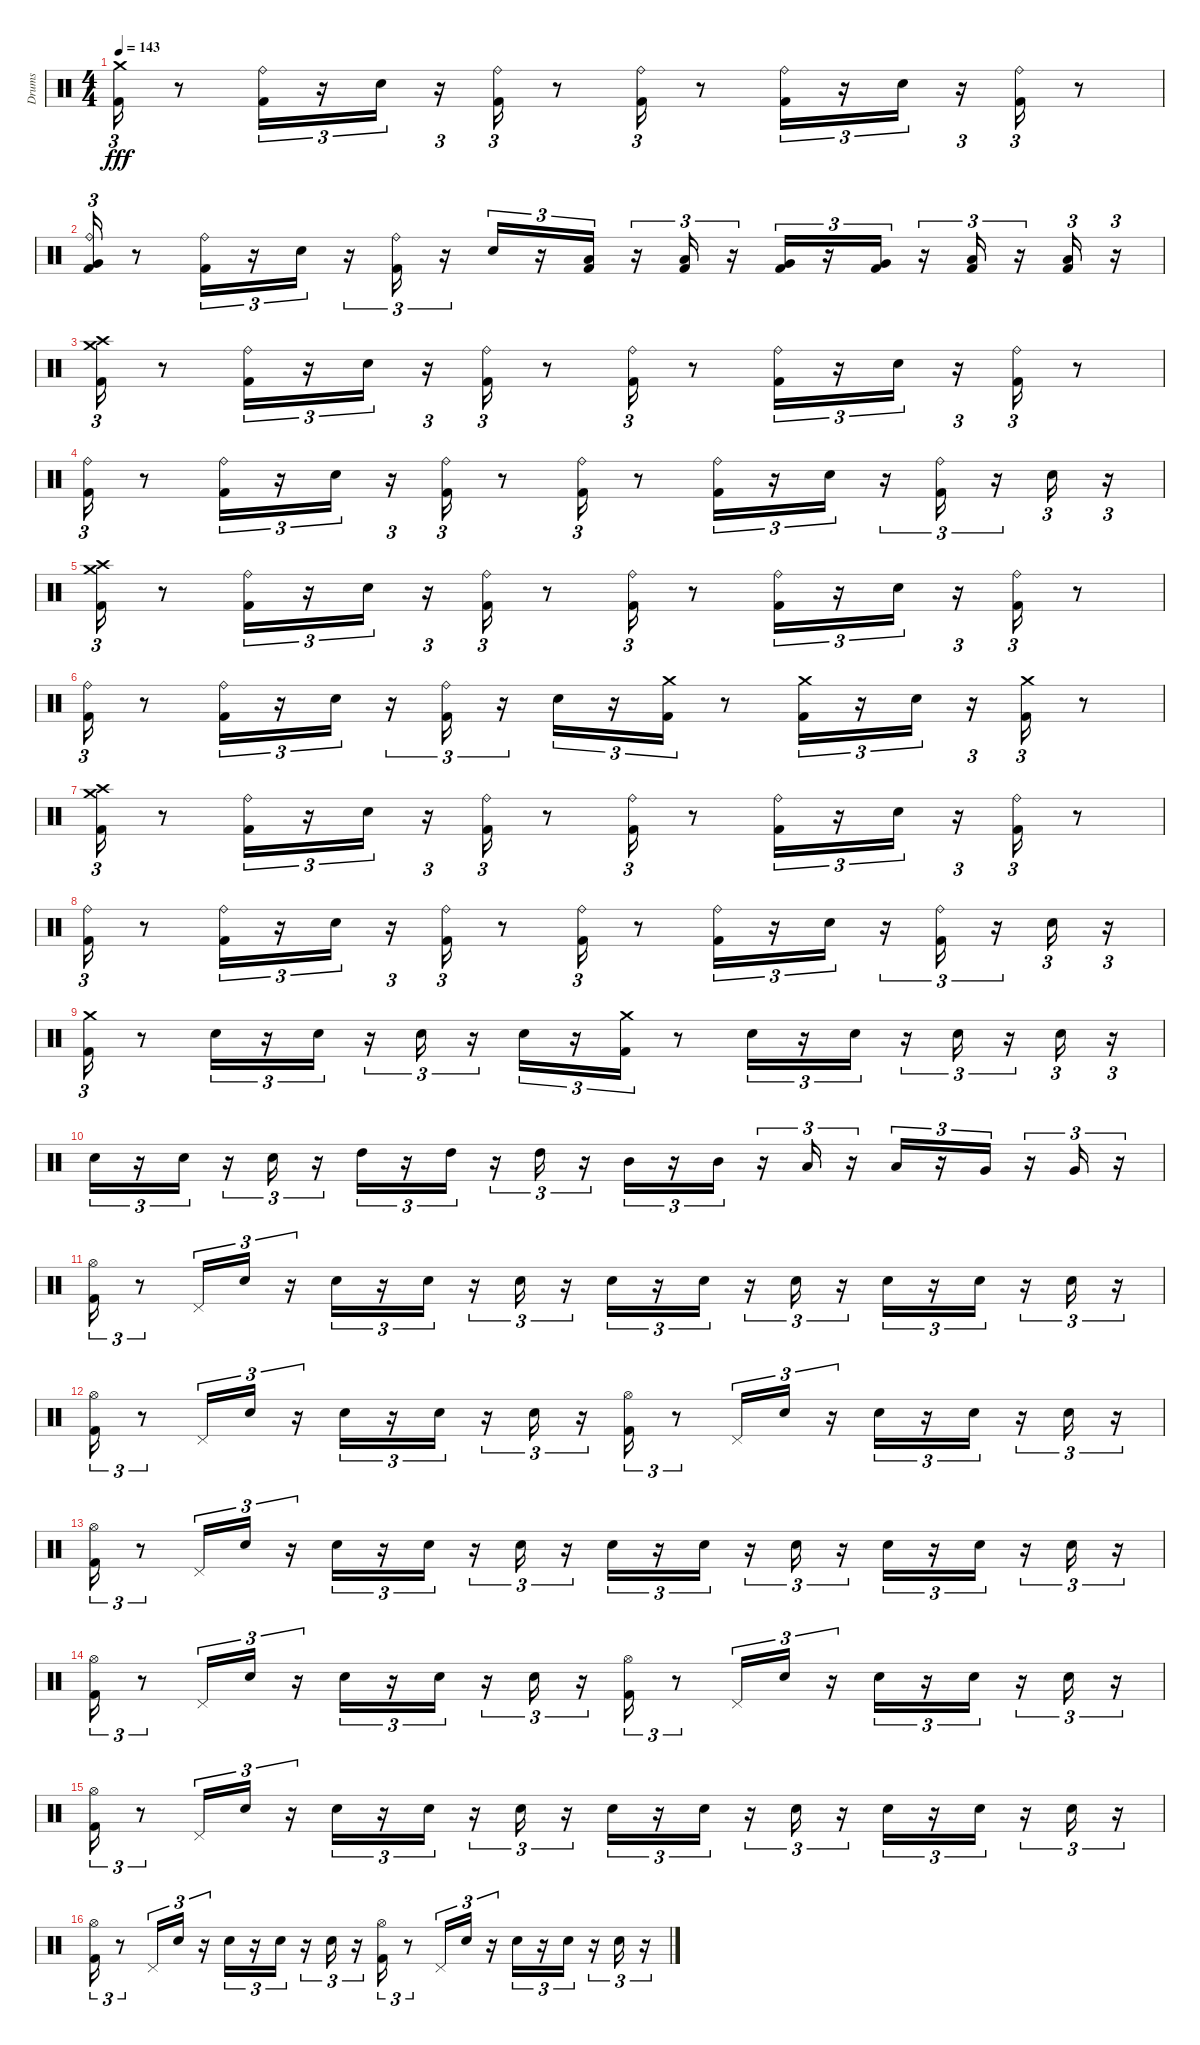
\track ("Drums" "Drums") {instrument percussion}
\staff {score}
\articulation defaults
\ts (4 4)
\tempo 143
\clef neutral
\ks c
("Crash medium (hit)" "Kick (hit) 2").16{tu (3 2) dy fff} r.8 ("Ride (bell)" "Kick (hit) 2").16{tu (3 2)} r.16{tu (3 2)} "Snare (hit) 2".16{tu (3 2)} r.16{tu (3 2)} ("Ride (bell)" "Kick (hit) 2").16{tu (3 2)} r.8 ("Ride (bell)" "Kick (hit) 2").16{tu (3 2)} r.8 ("Ride (bell)" "Kick (hit) 2").16{tu (3 2)} r.16{tu (3 2)} "Snare (hit) 2".16{tu (3 2)} r.16{tu (3 2)} ("Ride (bell)" "Kick (hit) 2").16{tu (3 2)} r.8 |
("Kick (hit) 2" "Very Low Tom (hit)" "Ride (bell)").16{tu (3 2)} r.8 ("Ride (bell)" "Kick (hit) 2").16{tu (3 2)} r.16{tu (3 2)} "Snare (hit) 2".16{tu (3 2)} r.16{tu (3 2)} ("Ride (bell)" "Kick (hit) 2").16{tu (3 2)} r.16{tu (3 2)} "Snare (hit) 2".16{tu (3 2)} r.16{tu (3 2)} ("Kick (hit) 2" "Low Tom (hit)").16{tu (3 2)} r.16{tu (3 2)} ("Kick (hit) 2" "Low Tom (hit)").16{tu (3 2)} r.16{tu (3 2)} ("Kick (hit) 2" "Very Low Tom (hit)").16{tu (3 2)} r.16{tu (3 2)} ("Kick (hit) 2" "Very Low Tom (hit)").16{tu (3 2)} r.16{tu (3 2)} ("Kick (hit) 2" "Low Floor Tom (hit)").16{tu (3 2)} r.16{tu (3 2)} ("Kick (hit) 2" "Low Floor Tom (hit)").16{tu (3 2)} r.16{tu (3 2)} |
("Crash high (hit)" "Crash medium (hit)" "Kick (hit) 2").16{tu (3 2)} r.8 ("Ride (bell)" "Kick (hit) 2").16{tu (3 2)} r.16{tu (3 2)} "Snare (hit) 2".16{tu (3 2)} r.16{tu (3 2)} ("Ride (bell)" "Kick (hit) 2").16{tu (3 2)} r.8 ("Ride (bell)" "Kick (hit) 2").16{tu (3 2)} r.8 ("Ride (bell)" "Kick (hit) 2").16{tu (3 2)} r.16{tu (3 2)} "Snare (hit) 2".16{tu (3 2)} r.16{tu (3 2)} ("Ride (bell)" "Kick (hit) 2").16{tu (3 2)} r.8 |
("Ride (bell)" "Kick (hit) 2").16{tu (3 2)} r.8 ("Ride (bell)" "Kick (hit) 2").16{tu (3 2)} r.16{tu (3 2)} "Snare (hit) 2".16{tu (3 2)} r.16{tu (3 2)} ("Ride (bell)" "Kick (hit) 2").16{tu (3 2)} r.8 ("Ride (bell)" "Kick (hit) 2").16{tu (3 2)} r.8 ("Ride (bell)" "Kick (hit) 2").16{tu (3 2)} r.16{tu (3 2)} "Snare (hit) 2".16{tu (3 2)} r.16{tu (3 2)} ("Ride (bell)" "Kick (hit) 2").16{tu (3 2)} r.16{tu (3 2)} "Snare (hit) 2".16{tu (3 2)} r.16{tu (3 2)} |
("Crash high (hit)" "Crash medium (hit)" "Kick (hit) 2").16{tu (3 2)} r.8 ("Ride (bell)" "Kick (hit) 2").16{tu (3 2)} r.16{tu (3 2)} "Snare (hit) 2".16{tu (3 2)} r.16{tu (3 2)} ("Ride (bell)" "Kick (hit) 2").16{tu (3 2)} r.8 ("Ride (bell)" "Kick (hit) 2").16{tu (3 2)} r.8 ("Ride (bell)" "Kick (hit) 2").16{tu (3 2)} r.16{tu (3 2)} "Snare (hit) 2".16{tu (3 2)} r.16{tu (3 2)} ("Ride (bell)" "Kick (hit) 2").16{tu (3 2)} r.8 |
("Ride (bell)" "Kick (hit) 2").16{tu (3 2)} r.8 ("Ride (bell)" "Kick (hit) 2").16{tu (3 2)} r.16{tu (3 2)} "Snare (hit) 2".16{tu (3 2)} r.16{tu (3 2)} ("Ride (bell)" "Kick (hit) 2").16{tu (3 2)} r.16{tu (3 2)} "Snare (hit) 2".16{tu (3 2)} r.16{tu (3 2)} ("Crash medium (hit)" "Kick (hit) 2").16{tu (3 2)} r.8 ("Crash medium (hit)" "Kick (hit) 2").16{tu (3 2)} r.16{tu (3 2)} "Snare (hit) 2".16{tu (3 2)} r.16{tu (3 2)} ("Crash medium (hit)" "Kick (hit) 2").16{tu (3 2)} r.8 |
("Crash high (hit)" "Crash medium (hit)" "Kick (hit) 2").16{tu (3 2)} r.8 ("Ride (bell)" "Kick (hit) 2").16{tu (3 2)} r.16{tu (3 2)} "Snare (hit) 2".16{tu (3 2)} r.16{tu (3 2)} ("Ride (bell)" "Kick (hit) 2").16{tu (3 2)} r.8 ("Ride (bell)" "Kick (hit) 2").16{tu (3 2)} r.8 ("Ride (bell)" "Kick (hit) 2").16{tu (3 2)} r.16{tu (3 2)} "Snare (hit) 2".16{tu (3 2)} r.16{tu (3 2)} ("Ride (bell)" "Kick (hit) 2").16{tu (3 2)} r.8 |
("Ride (bell)" "Kick (hit) 2").16{tu (3 2)} r.8 ("Ride (bell)" "Kick (hit) 2").16{tu (3 2)} r.16{tu (3 2)} "Snare (hit) 2".16{tu (3 2)} r.16{tu (3 2)} ("Ride (bell)" "Kick (hit) 2").16{tu (3 2)} r.8 ("Ride (bell)" "Kick (hit) 2").16{tu (3 2)} r.8 ("Ride (bell)" "Kick (hit) 2").16{tu (3 2)} r.16{tu (3 2)} "Snare (hit) 2".16{tu (3 2)} r.16{tu (3 2)} ("Ride (bell)" "Kick (hit) 2").16{tu (3 2)} r.16{tu (3 2)} "Snare (hit) 2".16{tu (3 2)} r.16{tu (3 2)} |
("Crash medium (hit)" "Kick (hit) 2").16{tu (3 2)} r.8 "Snare (hit) 2".16{tu (3 2)} r.16{tu (3 2)} "Snare (hit) 2".16{tu (3 2)} r.16{tu (3 2)} "Snare (hit) 2".16{tu (3 2)} r.16{tu (3 2)} "Snare (hit) 2".16{tu (3 2)} r.16{tu (3 2)} ("Crash medium (hit)" "Kick (hit) 2").16{tu (3 2)} r.8 "Snare (hit) 2".16{tu (3 2)} r.16{tu (3 2)} "Snare (hit) 2".16{tu (3 2)} r.16{tu (3 2)} "Snare (hit) 2".16{tu (3 2)} r.16{tu (3 2)} "Snare (hit) 2".16{tu (3 2)} r.16{tu (3 2)} |
"Snare (hit) 2".16{tu (3 2)} r.16{tu (3 2)} "Snare (hit) 2".16{tu (3 2)} r.16{tu (3 2)} "Snare (hit) 2".16{tu (3 2)} r.16{tu (3 2)} "High Tom (hit)".16{tu (3 2)} r.16{tu (3 2)} "High Tom (hit)".16{tu (3 2)} r.16{tu (3 2)} "High Tom (hit)".16{tu (3 2)} r.16{tu (3 2)} "Mid Tom (hit)".16{tu (3 2)} r.16{tu (3 2)} "Mid Tom (hit)".16{tu (3 2)} r.16{tu (3 2)} "Low Tom (hit)".16{tu (3 2)} r.16{tu (3 2)} "Low Tom (hit)".16{tu (3 2)} r.16{tu (3 2)} "Very Low Tom (hit)".16{tu (3 2)} r.16{tu (3 2)} "Very Low Tom (hit)".16{tu (3 2)} r.16{tu (3 2)} |
("Hi-Hat (open)" "Kick (hit) 2").16{tu (3 2)} r.8{tu (3 2)} "Pedal Hi-Hat (hit)".16{tu (3 2)} "Snare (hit) 2".16{tu (3 2)} r.16{tu (3 2)} "Snare (hit) 2".16{tu (3 2)} r.16{tu (3 2)} "Snare (hit) 2".16{tu (3 2)} r.16{tu (3 2)} "Snare (hit) 2".16{tu (3 2)} r.16{tu (3 2)} "Snare (hit) 2".16{tu (3 2)} r.16{tu (3 2)} "Snare (hit) 2".16{tu (3 2)} r.16{tu (3 2)} "Snare (hit) 2".16{tu (3 2)} r.16{tu (3 2)} "Snare (hit) 2".16{tu (3 2)} r.16{tu (3 2)} "Snare (hit) 2".16{tu (3 2)} r.16{tu (3 2)} "Snare (hit) 2".16{tu (3 2)} r.16{tu (3 2)} |
("Hi-Hat (open)" "Kick (hit) 2").16{tu (3 2)} r.8{tu (3 2)} "Pedal Hi-Hat (hit)".16{tu (3 2)} "Snare (hit) 2".16{tu (3 2)} r.16{tu (3 2)} "Snare (hit) 2".16{tu (3 2)} r.16{tu (3 2)} "Snare (hit) 2".16{tu (3 2)} r.16{tu (3 2)} "Snare (hit) 2".16{tu (3 2)} r.16{tu (3 2)} ("Hi-Hat (open)" "Kick (hit) 2").16{tu (3 2)} r.8{tu (3 2)} "Pedal Hi-Hat (hit)".16{tu (3 2)} "Snare (hit) 2".16{tu (3 2)} r.16{tu (3 2)} "Snare (hit) 2".16{tu (3 2)} r.16{tu (3 2)} "Snare (hit) 2".16{tu (3 2)} r.16{tu (3 2)} "Snare (hit) 2".16{tu (3 2)} r.16{tu (3 2)} |
("Hi-Hat (open)" "Kick (hit) 2").16{tu (3 2)} r.8{tu (3 2)} "Pedal Hi-Hat (hit)".16{tu (3 2)} "Snare (hit) 2".16{tu (3 2)} r.16{tu (3 2)} "Snare (hit) 2".16{tu (3 2)} r.16{tu (3 2)} "Snare (hit) 2".16{tu (3 2)} r.16{tu (3 2)} "Snare (hit) 2".16{tu (3 2)} r.16{tu (3 2)} "Snare (hit) 2".16{tu (3 2)} r.16{tu (3 2)} "Snare (hit) 2".16{tu (3 2)} r.16{tu (3 2)} "Snare (hit) 2".16{tu (3 2)} r.16{tu (3 2)} "Snare (hit) 2".16{tu (3 2)} r.16{tu (3 2)} "Snare (hit) 2".16{tu (3 2)} r.16{tu (3 2)} "Snare (hit) 2".16{tu (3 2)} r.16{tu (3 2)} |
("Hi-Hat (open)" "Kick (hit) 2").16{tu (3 2)} r.8{tu (3 2)} "Pedal Hi-Hat (hit)".16{tu (3 2)} "Snare (hit) 2".16{tu (3 2)} r.16{tu (3 2)} "Snare (hit) 2".16{tu (3 2)} r.16{tu (3 2)} "Snare (hit) 2".16{tu (3 2)} r.16{tu (3 2)} "Snare (hit) 2".16{tu (3 2)} r.16{tu (3 2)} ("Hi-Hat (open)" "Kick (hit) 2").16{tu (3 2)} r.8{tu (3 2)} "Pedal Hi-Hat (hit)".16{tu (3 2)} "Snare (hit) 2".16{tu (3 2)} r.16{tu (3 2)} "Snare (hit) 2".16{tu (3 2)} r.16{tu (3 2)} "Snare (hit) 2".16{tu (3 2)} r.16{tu (3 2)} "Snare (hit) 2".16{tu (3 2)} r.16{tu (3 2)} |
("Hi-Hat (open)" "Kick (hit) 2").16{tu (3 2)} r.8{tu (3 2)} "Pedal Hi-Hat (hit)".16{tu (3 2)} "Snare (hit) 2".16{tu (3 2)} r.16{tu (3 2)} "Snare (hit) 2".16{tu (3 2)} r.16{tu (3 2)} "Snare (hit) 2".16{tu (3 2)} r.16{tu (3 2)} "Snare (hit) 2".16{tu (3 2)} r.16{tu (3 2)} "Snare (hit) 2".16{tu (3 2)} r.16{tu (3 2)} "Snare (hit) 2".16{tu (3 2)} r.16{tu (3 2)} "Snare (hit) 2".16{tu (3 2)} r.16{tu (3 2)} "Snare (hit) 2".16{tu (3 2)} r.16{tu (3 2)} "Snare (hit) 2".16{tu (3 2)} r.16{tu (3 2)} "Snare (hit) 2".16{tu (3 2)} r.16{tu (3 2)} |
("Hi-Hat (open)" "Kick (hit) 2").16{tu (3 2)} r.8{tu (3 2)} "Pedal Hi-Hat (hit)".16{tu (3 2)} "Snare (hit) 2".16{tu (3 2)} r.16{tu (3 2)} "Snare (hit) 2".16{tu (3 2)} r.16{tu (3 2)} "Snare (hit) 2".16{tu (3 2)} r.16{tu (3 2)} "Snare (hit) 2".16{tu (3 2)} r.16{tu (3 2)} ("Hi-Hat (open)" "Kick (hit) 2").16{tu (3 2)} r.8{tu (3 2)} "Pedal Hi-Hat (hit)".16{tu (3 2)} "Snare (hit) 2".16{tu (3 2)} r.16{tu (3 2)} "Snare (hit) 2".16{tu (3 2)} r.16{tu (3 2)} "Snare (hit) 2".16{tu (3 2)} r.16{tu (3 2)} "Snare (hit) 2".16{tu (3 2)} r.16{tu (3 2)}
